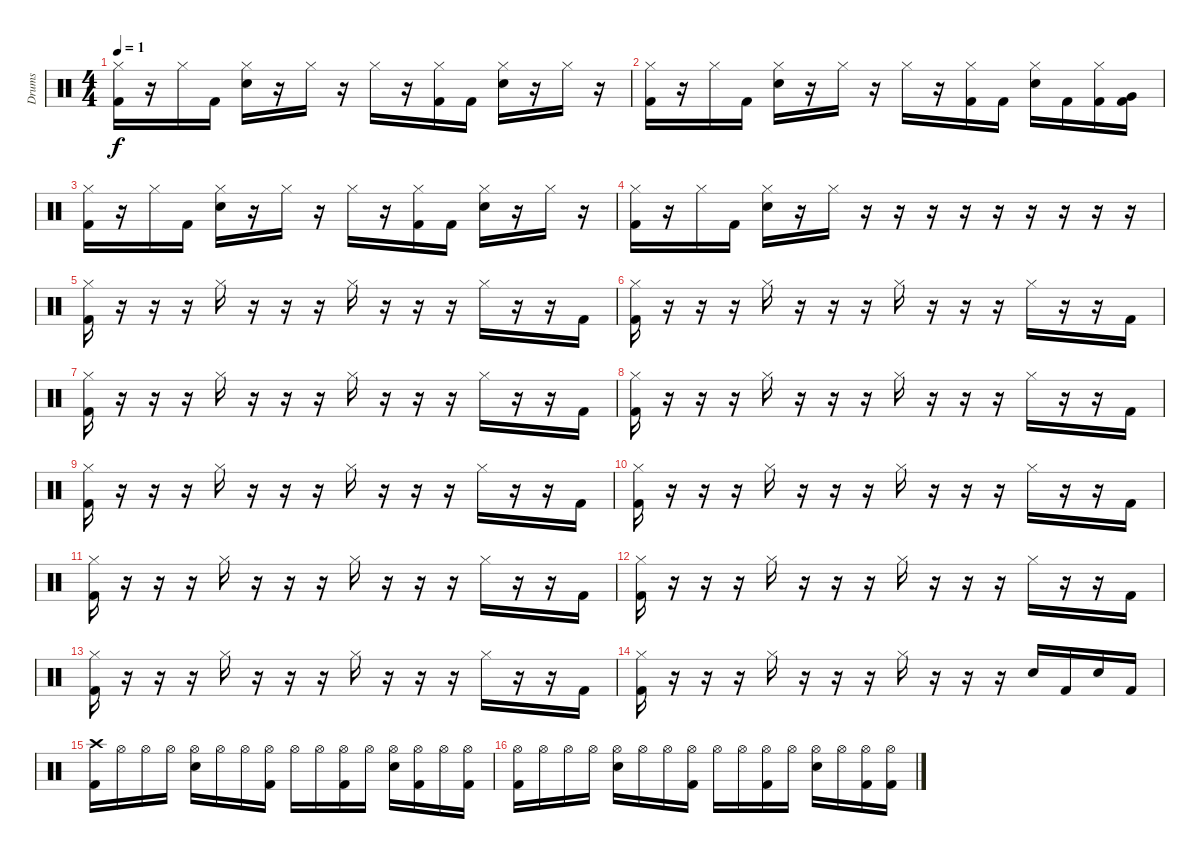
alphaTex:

\track ("Drums" "Drums") {instrument percussion}
\staff {score}
\articulation defaults
\ts (4 4)
\tempo 1
\clef neutral
\ks c
("Hi-Hat (closed)" "Kick (hit) 2").16{dy f} r.16 "Hi-Hat (closed)".16 "Kick (hit) 2".16 ("Hi-Hat (closed)" "Snare (hit) 2").16 r.16 "Hi-Hat (closed)".16 r.16 "Hi-Hat (closed)".16 r.16 ("Hi-Hat (closed)" "Kick (hit) 2").16 "Kick (hit) 2".16 ("Hi-Hat (closed)" "Snare (hit) 2").16 r.16 "Hi-Hat (closed)".16 r.16 |
("Hi-Hat (closed)" "Kick (hit) 2").16 r.16 "Hi-Hat (closed)".16 "Kick (hit) 2".16 ("Hi-Hat (closed)" "Snare (hit) 2").16 r.16 "Hi-Hat (closed)".16 r.16 "Hi-Hat (closed)".16 r.16 ("Hi-Hat (closed)" "Kick (hit) 2").16 "Kick (hit) 2".16 ("Hi-Hat (closed)" "Snare (hit) 2").16 "Kick (hit) 2".16 ("Hi-Hat (closed)" "Kick (hit) 2").16 ("Kick (hit) 2" "Very Low Tom (hit)").16 |
("Hi-Hat (closed)" "Kick (hit) 2").16 r.16 "Hi-Hat (closed)".16 "Kick (hit) 2".16 ("Hi-Hat (closed)" "Snare (hit) 2").16 r.16 "Hi-Hat (closed)".16 r.16 "Hi-Hat (closed)".16 r.16 ("Hi-Hat (closed)" "Kick (hit) 2").16 "Kick (hit) 2".16 ("Hi-Hat (closed)" "Snare (hit) 2").16 r.16 "Hi-Hat (closed)".16 r.16 |
("Hi-Hat (closed)" "Kick (hit) 2").16 r.16 "Hi-Hat (closed)".16 "Kick (hit) 2".16 ("Hi-Hat (closed)" "Snare (hit) 2").16 r.16 "Hi-Hat (closed)".16 r.16 r.16 r.16 r.16 r.16 r.16 r.16 r.16 r.16 |
("Hi-Hat (closed)" "Kick (hit) 2").16 r.16 r.16 r.16 "Hi-Hat (closed)".16 r.16 r.16 r.16 "Hi-Hat (closed)".16 r.16 r.16 r.16 "Hi-Hat (closed)".16 r.16 r.16 "Kick (hit) 2".16 |
("Hi-Hat (closed)" "Kick (hit) 2").16 r.16 r.16 r.16 "Hi-Hat (closed)".16 r.16 r.16 r.16 "Hi-Hat (closed)".16 r.16 r.16 r.16 "Hi-Hat (closed)".16 r.16 r.16 "Kick (hit) 2".16 |
("Hi-Hat (closed)" "Kick (hit) 2").16 r.16 r.16 r.16 "Hi-Hat (closed)".16 r.16 r.16 r.16 "Hi-Hat (closed)".16 r.16 r.16 r.16 "Hi-Hat (closed)".16 r.16 r.16 "Kick (hit) 2".16 |
("Hi-Hat (closed)" "Kick (hit) 2").16 r.16 r.16 r.16 "Hi-Hat (closed)".16 r.16 r.16 r.16 "Hi-Hat (closed)".16 r.16 r.16 r.16 "Hi-Hat (closed)".16 r.16 r.16 "Kick (hit) 2".16 |
("Hi-Hat (closed)" "Kick (hit) 2").16 r.16 r.16 r.16 "Hi-Hat (closed)".16 r.16 r.16 r.16 "Hi-Hat (closed)".16 r.16 r.16 r.16 "Hi-Hat (closed)".16 r.16 r.16 "Kick (hit) 2".16 |
("Hi-Hat (closed)" "Kick (hit) 2").16 r.16 r.16 r.16 "Hi-Hat (closed)".16 r.16 r.16 r.16 "Hi-Hat (closed)".16 r.16 r.16 r.16 "Hi-Hat (closed)".16 r.16 r.16 "Kick (hit) 2".16 |
("Hi-Hat (closed)" "Kick (hit) 2").16 r.16 r.16 r.16 "Hi-Hat (closed)".16 r.16 r.16 r.16 "Hi-Hat (closed)".16 r.16 r.16 r.16 "Hi-Hat (closed)".16 r.16 r.16 "Kick (hit) 2".16 |
("Hi-Hat (closed)" "Kick (hit) 2").16 r.16 r.16 r.16 "Hi-Hat (closed)".16 r.16 r.16 r.16 "Hi-Hat (closed)".16 r.16 r.16 r.16 "Hi-Hat (closed)".16 r.16 r.16 "Kick (hit) 2".16 |
("Hi-Hat (closed)" "Kick (hit) 2").16 r.16 r.16 r.16 "Hi-Hat (closed)".16 r.16 r.16 r.16 "Hi-Hat (closed)".16 r.16 r.16 r.16 "Hi-Hat (closed)".16 r.16 r.16 "Kick (hit) 2".16 |
("Hi-Hat (closed)" "Kick (hit) 2").16 r.16 r.16 r.16 "Hi-Hat (closed)".16 r.16 r.16 r.16 "Hi-Hat (closed)".16 r.16 r.16 r.16 "Snare (hit) 2".16 "Kick (hit) 2".16 "Snare (hit) 2".16 "Kick (hit) 2".16 |
("Crash high (hit)" "Kick (hit) 2").16 "Hi-Hat (open)".16 "Hi-Hat (open)".16 "Hi-Hat (open)".16 ("Hi-Hat (open)" "Snare (hit) 2").16 "Hi-Hat (open)".16 "Hi-Hat (open)".16 ("Kick (hit) 2" "Hi-Hat (open)").16 "Hi-Hat (open)".16 "Hi-Hat (open)".16 ("Hi-Hat (open)" "Kick (hit) 2").16 "Hi-Hat (open)".16 ("Hi-Hat (open)" "Snare (hit) 2").16 ("Kick (hit) 2" "Hi-Hat (open)").16 "Hi-Hat (open)".16 ("Kick (hit) 2" "Hi-Hat (open)").16 |
("Hi-Hat (open)" "Kick (hit) 2").16 "Hi-Hat (open)".16 "Hi-Hat (open)".16 "Hi-Hat (open)".16 ("Hi-Hat (open)" "Snare (hit) 2").16 "Hi-Hat (open)".16 "Hi-Hat (open)".16 ("Kick (hit) 2" "Hi-Hat (open)").16 "Hi-Hat (open)".16 "Hi-Hat (open)".16 ("Hi-Hat (open)" "Kick (hit) 2").16 "Hi-Hat (open)".16 ("Hi-Hat (open)" "Snare (hit) 2").16 "Hi-Hat (open)".16 ("Hi-Hat (open)" "Kick (hit) 2").16 ("Kick (hit) 2" "Hi-Hat (open)").16
